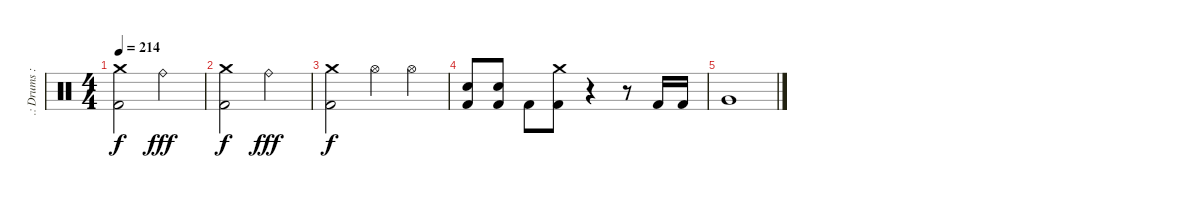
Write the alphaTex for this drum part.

\track (".: Drums :." ".: Drums :") {instrument percussion}
\staff {score}
\articulation defaults
\ts (4 4)
\tempo 214
\clef neutral
\ks c
("Kick (hit) 2" "Crash medium (hit)").2{dy f} "Ride (bell)".2{dy fff} |
("Kick (hit) 2" "Crash medium (hit)").2{dy f} "Ride (bell)".2{dy fff} |
("Kick (hit) 2" "Crash medium (hit)").2{dy f} "Hi-Hat (open)".4 "Hi-Hat (open)".4 |
("Snare (hit) 2" "Kick (hit) 2").8 ("Snare (hit) 2" "Kick (hit) 2").8 "Kick (hit) 2".8 ("Kick (hit) 2" "Crash medium (hit)").8 r.4 r.8 "Kick (hit) 2".16 "Kick (hit) 2".16 |
"Very Low Tom (hit)".1
